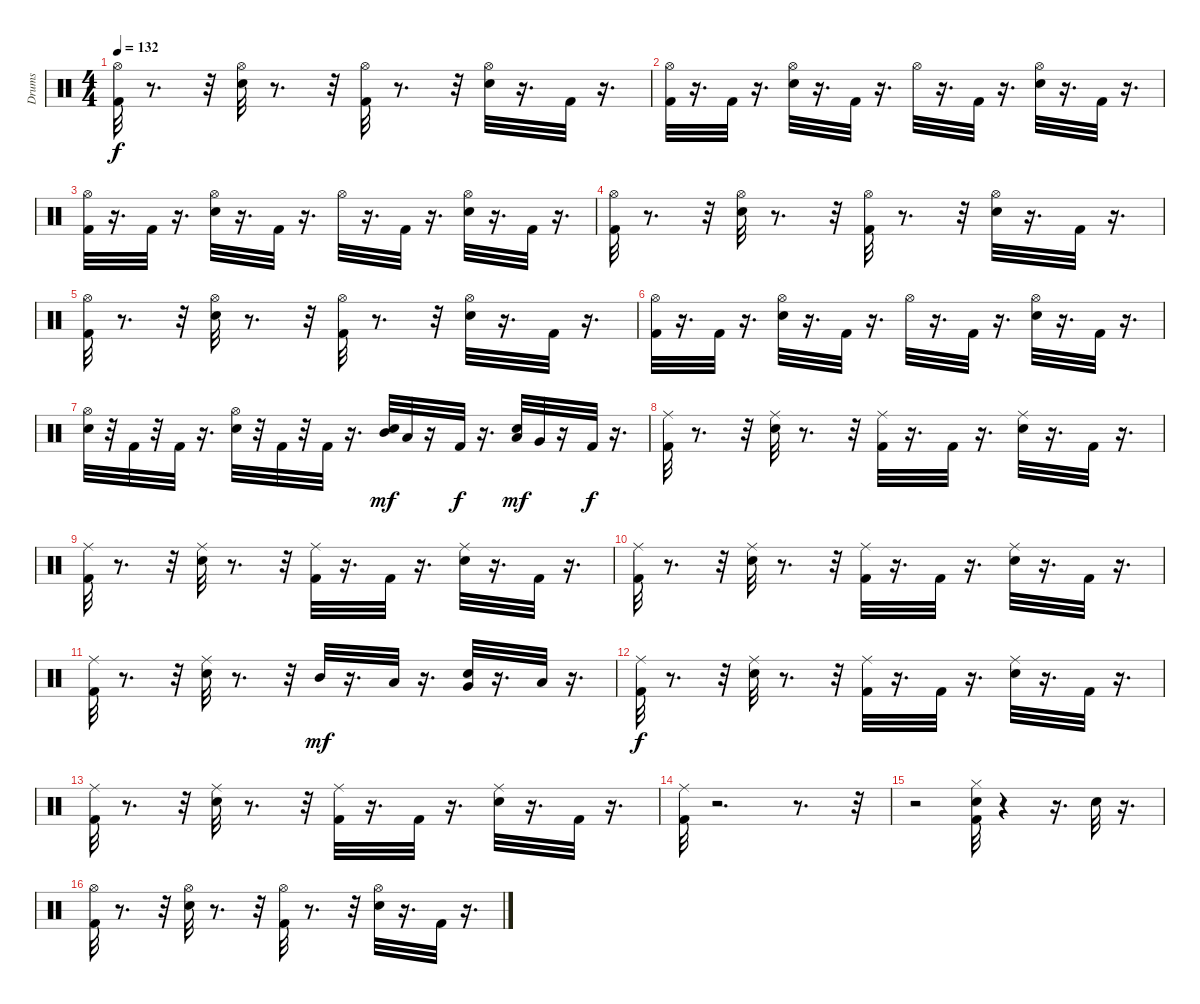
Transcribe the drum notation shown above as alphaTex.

\track ("Drums" "Drums") {instrument percussion}
\staff {score}
\articulation defaults
\ts (4 4)
\tempo 132
\clef neutral
\ks c
("Kick (hit) 2" "Hi-Hat (open)").32{dy f} r.8{d} r.32 ("Snare (hit) 2" "Hi-Hat (open)").32 r.8{d} r.32 ("Kick (hit) 2" "Hi-Hat (open)").32 r.8{d} r.32 ("Snare (hit) 2" "Hi-Hat (open)").32 r.16{d} "Kick (hit) 2".32 r.16{d} |
("Kick (hit) 2" "Hi-Hat (open)").32 r.16{d} "Kick (hit) 2".32 r.16{d} ("Snare (hit) 2" "Hi-Hat (open)").32 r.16{d} "Kick (hit) 2".32 r.16{d} "Hi-Hat (open)".32 r.16{d} "Kick (hit) 2".32 r.16{d} ("Snare (hit) 2" "Hi-Hat (open)").32 r.16{d} "Kick (hit) 2".32 r.16{d} |
("Kick (hit) 2" "Hi-Hat (open)").32 r.16{d} "Kick (hit) 2".32 r.16{d} ("Snare (hit) 2" "Hi-Hat (open)").32 r.16{d} "Kick (hit) 2".32 r.16{d} "Hi-Hat (open)".32 r.16{d} "Kick (hit) 2".32 r.16{d} ("Snare (hit) 2" "Hi-Hat (open)").32 r.16{d} "Kick (hit) 2".32 r.16{d} |
("Kick (hit) 2" "Hi-Hat (open)").32 r.8{d} r.32 ("Snare (hit) 2" "Hi-Hat (open)").32 r.8{d} r.32 ("Kick (hit) 2" "Hi-Hat (open)").32 r.8{d} r.32 ("Snare (hit) 2" "Hi-Hat (open)").32 r.16{d} "Kick (hit) 2".32 r.16{d} |
("Kick (hit) 2" "Hi-Hat (open)").32 r.8{d} r.32 ("Snare (hit) 2" "Hi-Hat (open)").32 r.8{d} r.32 ("Kick (hit) 2" "Hi-Hat (open)").32 r.8{d} r.32 ("Snare (hit) 2" "Hi-Hat (open)").32 r.16{d} "Kick (hit) 2".32 r.16{d} |
("Kick (hit) 2" "Hi-Hat (open)").32 r.16{d} "Kick (hit) 2".32 r.16{d} ("Snare (hit) 2" "Hi-Hat (open)").32 r.16{d} "Kick (hit) 2".32 r.16{d} "Hi-Hat (open)".32 r.16{d} "Kick (hit) 2".32 r.16{d} ("Snare (hit) 2" "Hi-Hat (open)").32 r.16{d} "Kick (hit) 2".32 r.16{d} |
("Snare (hit) 2" "Hi-Hat (open)").32 r.32 "Kick (hit) 2".32 r.32 "Kick (hit) 2".32 r.16{d} ("Snare (hit) 2" "Hi-Hat (open)").32 r.32 "Kick (hit) 2".32 r.32 "Kick (hit) 2".32 r.16{d} ("Snare (hit) 2" "Mid Tom (hit)").32{dy mf} "Low Tom (hit)".32 r.16 "Kick (hit) 2".32{dy f} r.16{d} ("Snare (hit) 2" "Low Tom (hit)").32{dy mf} "Very Low Tom (hit)".32 r.16 "Kick (hit) 2".32{dy f} r.16{d} |
("Kick (hit) 2" "Ride (middle)").32 r.8{d} r.32 ("Snare (hit) 2" "Ride (middle)").32 r.8{d} r.32 ("Kick (hit) 2" "Ride (middle)").32 r.16{d} "Kick (hit) 2".32 r.16{d} ("Snare (hit) 2" "Ride (middle)").32 r.16{d} "Kick (hit) 2".32 r.16{d} |
("Kick (hit) 2" "Ride (middle)").32 r.8{d} r.32 ("Snare (hit) 2" "Ride (middle)").32 r.8{d} r.32 ("Kick (hit) 2" "Ride (middle)").32 r.16{d} "Kick (hit) 2".32 r.16{d} ("Snare (hit) 2" "Ride (middle)").32 r.16{d} "Kick (hit) 2".32 r.16{d} |
("Kick (hit) 2" "Ride (middle)").32 r.8{d} r.32 ("Snare (hit) 2" "Ride (middle)").32 r.8{d} r.32 ("Kick (hit) 2" "Ride (middle)").32 r.16{d} "Kick (hit) 2".32 r.16{d} ("Snare (hit) 2" "Ride (middle)").32 r.16{d} "Kick (hit) 2".32 r.16{d} |
("Kick (hit) 2" "Ride (middle)").32 r.8{d} r.32 ("Snare (hit) 2" "Ride (middle)").32 r.8{d} r.32 "Mid Tom (hit)".32{dy mf} r.16{d} "Low Tom (hit)".32 r.16{d} ("Snare (hit) 2" "Very Low Tom (hit)").32 r.16{d} "Low Floor Tom (hit)".32 r.16{d} |
("Kick (hit) 2" "Ride (middle)").32{dy f} r.8{d} r.32 ("Snare (hit) 2" "Ride (middle)").32 r.8{d} r.32 ("Kick (hit) 2" "Ride (middle)").32 r.16{d} "Kick (hit) 2".32 r.16{d} ("Snare (hit) 2" "Ride (middle)").32 r.16{d} "Kick (hit) 2".32 r.16{d} |
("Kick (hit) 2" "Ride (middle)").32 r.8{d} r.32 ("Snare (hit) 2" "Ride (middle)").32 r.8{d} r.32 ("Kick (hit) 2" "Ride (middle)").32 r.16{d} "Kick (hit) 2".32 r.16{d} ("Snare (hit) 2" "Ride (middle)").32 r.16{d} "Kick (hit) 2".32 r.16{d} |
("Kick (hit) 2" "Ride (middle)").32 r.2{d} r.8{d} r.32 |
r.2 ("Kick (hit) 2" "Snare (hit) 2" "Hi-Hat (closed)").32 r.4 r.16{d} "Snare (hit) 2".32 r.16{d} |
("Kick (hit) 2" "Hi-Hat (open)").32 r.8{d} r.32 ("Snare (hit) 2" "Hi-Hat (open)").32 r.8{d} r.32 ("Kick (hit) 2" "Hi-Hat (open)").32 r.8{d} r.32 ("Snare (hit) 2" "Hi-Hat (open)").32 r.16{d} "Kick (hit) 2".32 r.16{d}
